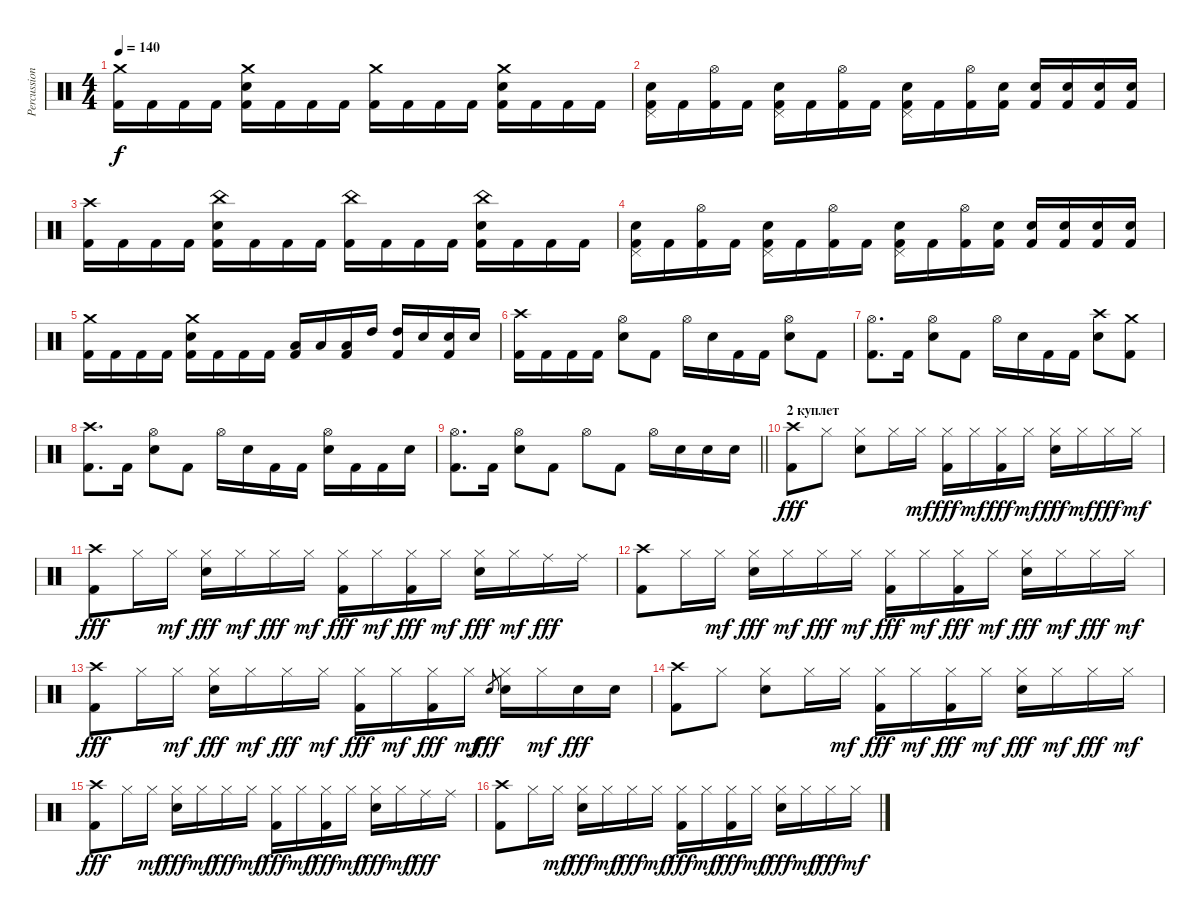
\track ("Percussion" "Percussion") {instrument percussion}
\staff {score}
\articulation defaults
\ts (4 4)
\tempo 140
\clef neutral
\ks c
("Crash medium (hit)" "Kick (hit) 2").16{dy f} "Kick (hit) 2".16 "Kick (hit) 2".16 "Kick (hit) 2".16 ("Crash medium (hit)" "Snare (hit) 2" "Kick (hit) 2").16 "Kick (hit) 2".16 "Kick (hit) 2".16 "Kick (hit) 2".16 ("Crash medium (hit)" "Kick (hit) 2").16 "Kick (hit) 2".16 "Kick (hit) 2".16 "Kick (hit) 2".16 ("Crash medium (hit)" "Snare (hit) 2" "Kick (hit) 2").16 "Kick (hit) 2".16 "Kick (hit) 2".16 "Kick (hit) 2".16 |
("Pedal Hi-Hat (hit)" "Snare (hit) 2" "Kick (hit) 2").16 "Kick (hit) 2".16 ("Hi-Hat (open)" "Kick (hit) 2").16 "Kick (hit) 2".16 ("Pedal Hi-Hat (hit)" "Snare (hit) 2" "Kick (hit) 2").16 "Kick (hit) 2".16 ("Hi-Hat (open)" "Kick (hit) 2").16 "Kick (hit) 2".16 ("Pedal Hi-Hat (hit)" "Snare (hit) 2" "Kick (hit) 2").16 "Kick (hit) 2".16 ("Hi-Hat (open)" "Kick (hit) 2").16 ("Snare (hit) 2" "Kick (hit) 2").16 ("Snare (hit) 2" "Kick (hit) 2").16 ("Snare (hit) 2" "Kick (hit) 2").16 ("Snare (hit) 2" "Kick (hit) 2").16 ("Snare (hit) 2" "Kick (hit) 2").16 |
("Crash high (hit)" "Kick (hit) 2").16 "Kick (hit) 2".16 "Kick (hit) 2".16 "Kick (hit) 2".16 ("China (hit)" "Snare (hit) 2" "Kick (hit) 2").16 "Kick (hit) 2".16 "Kick (hit) 2".16 "Kick (hit) 2".16 ("China (hit)" "Kick (hit) 2").16 "Kick (hit) 2".16 "Kick (hit) 2".16 "Kick (hit) 2".16 ("China (hit)" "Snare (hit) 2" "Kick (hit) 2").16 "Kick (hit) 2".16 "Kick (hit) 2".16 "Kick (hit) 2".16 |
("Pedal Hi-Hat (hit)" "Snare (hit) 2" "Kick (hit) 2").16 "Kick (hit) 2".16 ("Hi-Hat (open)" "Kick (hit) 2").16 "Kick (hit) 2".16 ("Pedal Hi-Hat (hit)" "Snare (hit) 2" "Kick (hit) 2").16 "Kick (hit) 2".16 ("Hi-Hat (open)" "Kick (hit) 2").16 "Kick (hit) 2".16 ("Pedal Hi-Hat (hit)" "Snare (hit) 2" "Kick (hit) 2").16 "Kick (hit) 2".16 ("Hi-Hat (open)" "Kick (hit) 2").16 ("Snare (hit) 2" "Kick (hit) 2").16 ("Snare (hit) 2" "Kick (hit) 2").16 ("Snare (hit) 2" "Kick (hit) 2").16 ("Snare (hit) 2" "Kick (hit) 2").16 ("Snare (hit) 2" "Kick (hit) 2").16 |
("Crash medium (hit)" "Kick (hit) 2").16 "Kick (hit) 2".16 "Kick (hit) 2".16 "Kick (hit) 2".16 ("Crash medium (hit)" "Snare (hit) 2" "Kick (hit) 2").16 "Kick (hit) 2".16 "Kick (hit) 2".16 "Kick (hit) 2".16 ("Low Tom (hit)" "Kick (hit) 2").16 "Low Tom (hit)".16 ("Low Tom (hit)" "Kick (hit) 2").16 "High Tom (hit)".16 ("High Tom (hit)" "Kick (hit) 2").16 "Snare (hit) 2".16 ("Snare (hit) 2" "Kick (hit) 2").16 "Snare (hit) 2".16 |
("Crash high (hit)" "Kick (hit) 2").16 "Kick (hit) 2".16 "Kick (hit) 2".16 "Kick (hit) 2".16 ("Hi-Hat (open)" "Snare (hit) 2").8 "Kick (hit) 2".8 "Hi-Hat (open)".16 "Snare (hit) 2".16 "Kick (hit) 2".16 "Kick (hit) 2".16 ("Hi-Hat (open)" "Snare (hit) 2").8 "Kick (hit) 2".8 |
("Hi-Hat (open)" "Kick (hit) 2").8{d} "Kick (hit) 2".16 ("Hi-Hat (open)" "Snare (hit) 2").8 "Kick (hit) 2".8 "Hi-Hat (open)".16 "Snare (hit) 2".16 "Kick (hit) 2".16 "Kick (hit) 2".16 ("Crash high (hit)" "Snare (hit) 2").8 ("Crash medium (hit)" "Kick (hit) 2").8 |
("Crash high (hit)" "Kick (hit) 2").8{d} "Kick (hit) 2".16 ("Hi-Hat (open)" "Snare (hit) 2").8 "Kick (hit) 2".8 "Hi-Hat (open)".16 "Snare (hit) 2".16 "Kick (hit) 2".16 "Kick (hit) 2".16 ("Hi-Hat (open)" "Snare (hit) 2").16 "Kick (hit) 2".16 "Kick (hit) 2".16 "Snare (hit) 2".16 |
\barLineRight lightlight
("Hi-Hat (open)" "Kick (hit) 2").8{d} "Kick (hit) 2".16 ("Hi-Hat (open)" "Snare (hit) 2").8 "Kick (hit) 2".8 "Hi-Hat (open)".8 "Kick (hit) 2".8 "Hi-Hat (open)".16 "Snare (hit) 2".16 "Snare (hit) 2".16 "Snare (hit) 2".16 |
\section ("" "2 куплет")
("Crash high (hit)" "Kick (hit) 2").8{dy fff} "Hi-Hat (closed)".8 ("Hi-Hat (closed)" "Snare (hit) 2").8 "Hi-Hat (closed)".16 "Hi-Hat (closed)".16{dy mf} ("Hi-Hat (closed)" "Kick (hit) 2").16{dy fff} "Hi-Hat (closed)".16{dy mf} ("Hi-Hat (closed)" "Kick (hit) 2").16{dy fff} "Hi-Hat (closed)".16{dy mf} ("Hi-Hat (closed)" "Snare (hit) 2").16{dy fff} "Hi-Hat (closed)".16{dy mf} "Hi-Hat (closed)".16{dy fff} "Hi-Hat (closed)".16{dy mf} |
("Crash high (hit)" "Kick (hit) 2").8{dy fff} "Hi-Hat (closed)".16 "Hi-Hat (closed)".16{dy mf} ("Hi-Hat (closed)" "Snare (hit) 2").16{dy fff} "Hi-Hat (closed)".16{dy mf} "Hi-Hat (closed)".16{dy fff} "Hi-Hat (closed)".16{dy mf} ("Hi-Hat (closed)" "Kick (hit) 2").16{dy fff} "Hi-Hat (closed)".16{dy mf} ("Hi-Hat (closed)" "Kick (hit) 2").16{dy fff} "Hi-Hat (closed)".16{dy mf} ("Hi-Hat (closed)" "Snare (hit) 2").16{dy fff} "Hi-Hat (closed)".16{dy mf} "Ride (middle)".16{dy fff} "Ride (middle)".16 |
("Crash high (hit)" "Kick (hit) 2").8 "Hi-Hat (closed)".16 "Hi-Hat (closed)".16{dy mf} ("Hi-Hat (closed)" "Snare (hit) 2").16{dy fff} "Hi-Hat (closed)".16{dy mf} "Hi-Hat (closed)".16{dy fff} "Hi-Hat (closed)".16{dy mf} ("Hi-Hat (closed)" "Kick (hit) 2").16{dy fff} "Hi-Hat (closed)".16{dy mf} ("Hi-Hat (closed)" "Kick (hit) 2").16{dy fff} "Hi-Hat (closed)".16{dy mf} ("Hi-Hat (closed)" "Snare (hit) 2").16{dy fff} "Hi-Hat (closed)".16{dy mf} "Hi-Hat (closed)".16{dy fff} "Hi-Hat (closed)".16{dy mf} |
("Crash high (hit)" "Kick (hit) 2").8{dy fff} "Hi-Hat (closed)".16 "Hi-Hat (closed)".16{dy mf} ("Hi-Hat (closed)" "Snare (hit) 2").16{dy fff} "Hi-Hat (closed)".16{dy mf} "Hi-Hat (closed)".16{dy fff} "Hi-Hat (closed)".16{dy mf} ("Hi-Hat (closed)" "Kick (hit) 2").16{dy fff} "Hi-Hat (closed)".16{dy mf} ("Hi-Hat (closed)" "Kick (hit) 2").16{dy fff} "Hi-Hat (closed)".16{dy mf} "Snare (hit) 2".8{gr dy fff} ("Hi-Hat (closed)" "Snare (hit) 2").16 "Hi-Hat (closed)".16{dy mf} "Snare (hit) 2".16{dy fff} "Snare (hit) 2".16 |
("Crash high (hit)" "Kick (hit) 2").8 "Hi-Hat (closed)".8 ("Hi-Hat (closed)" "Snare (hit) 2").8 "Hi-Hat (closed)".16 "Hi-Hat (closed)".16{dy mf} ("Hi-Hat (closed)" "Kick (hit) 2").16{dy fff} "Hi-Hat (closed)".16{dy mf} ("Hi-Hat (closed)" "Kick (hit) 2").16{dy fff} "Hi-Hat (closed)".16{dy mf} ("Hi-Hat (closed)" "Snare (hit) 2").16{dy fff} "Hi-Hat (closed)".16{dy mf} "Hi-Hat (closed)".16{dy fff} "Hi-Hat (closed)".16{dy mf} |
("Crash high (hit)" "Kick (hit) 2").8{dy fff} "Hi-Hat (closed)".16 "Hi-Hat (closed)".16{dy mf} ("Hi-Hat (closed)" "Snare (hit) 2").16{dy fff} "Hi-Hat (closed)".16{dy mf} "Hi-Hat (closed)".16{dy fff} "Hi-Hat (closed)".16{dy mf} ("Hi-Hat (closed)" "Kick (hit) 2").16{dy fff} "Hi-Hat (closed)".16{dy mf} ("Hi-Hat (closed)" "Kick (hit) 2").16{dy fff} "Hi-Hat (closed)".16{dy mf} ("Hi-Hat (closed)" "Snare (hit) 2").16{dy fff} "Hi-Hat (closed)".16{dy mf} "Ride (middle)".16{dy fff} "Ride (middle)".16 |
("Crash high (hit)" "Kick (hit) 2").8 "Hi-Hat (closed)".16 "Hi-Hat (closed)".16{dy mf} ("Hi-Hat (closed)" "Snare (hit) 2").16{dy fff} "Hi-Hat (closed)".16{dy mf} "Hi-Hat (closed)".16{dy fff} "Hi-Hat (closed)".16{dy mf} ("Hi-Hat (closed)" "Kick (hit) 2").16{dy fff} "Hi-Hat (closed)".16{dy mf} ("Hi-Hat (closed)" "Kick (hit) 2").16{dy fff} "Hi-Hat (closed)".16{dy mf} ("Hi-Hat (closed)" "Snare (hit) 2").16{dy fff} "Hi-Hat (closed)".16{dy mf} "Hi-Hat (closed)".16{dy fff} "Hi-Hat (closed)".16{dy mf}
